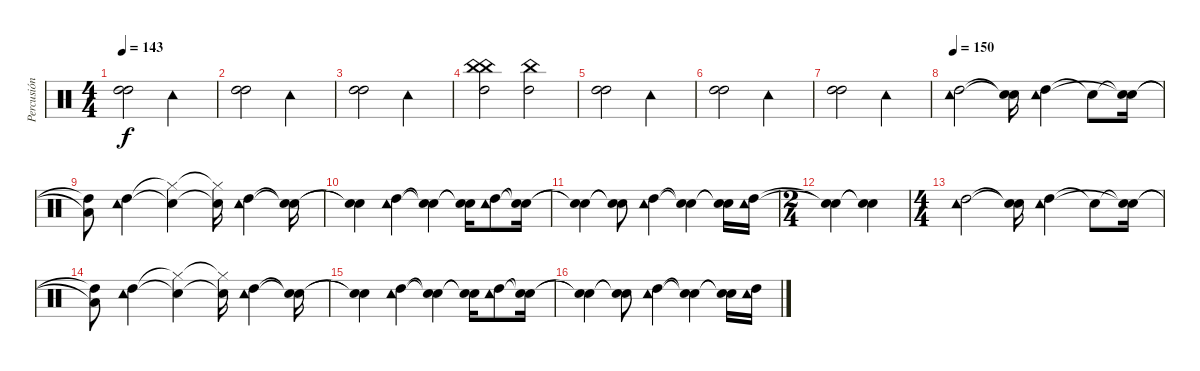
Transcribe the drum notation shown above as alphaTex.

\track ("Percusión" "Percusión") {instrument percussion}
\staff {score}
\articulation defaults
\ts (4 4)
\tempo 143
\clef neutral
\ks c
("High Tom (hit)" "High Tom (hit)").2{dy f} "Tambourine (hit)".2 |
("High Tom (hit)" "High Tom (hit)").2 "Tambourine (hit)".2 |
("High Tom (hit)" "High Tom (hit)").2 "Tambourine (hit)".2 |
("China (hit)" "High Tom (hit)" "China (hit)").2 ("China (hit)" "High Tom (hit)").2 |
("High Tom (hit)" "High Tom (hit)").2 "Tambourine (hit)".2 |
("High Tom (hit)" "High Tom (hit)").2 "Tambourine (hit)".2 |
("High Tom (hit)" "High Tom (hit)").2 "Tambourine (hit)".2 |
\tempo 150
("High Tom (hit)" "Tambourine (hit)").2 ("Snare (hit)"{t} "Snare (hit)"{t}).16 ("High Tom (hit)" "Tambourine (hit)").4 "Snare (hit)"{t}.8 ("Snare (hit)"{t} "Snare (hit)"{t}).16 |
("High Tom (hit)"{t} "Low Floor Tom (hit)"{t}).8 ("High Tom (hit)" "Tambourine (hit)").4 ("Hi-Hat (closed)"{t} "Snare (hit)"{t}).4 ("Hi-Hat (closed)"{t} "Snare (hit)"{t}).16 ("High Tom (hit)" "Tambourine (hit)").4 ("Snare (hit)"{t} "Snare (hit)"{t}).16 |
("Snare (hit)"{t} "Snare (hit)"{t}).4 ("High Tom (hit)" "Tambourine (hit)").4 ("Snare (hit)"{t} "Snare (hit)"{t}).4 ("Snare (hit)"{t} "Snare (hit)"{t}).16 ("High Tom (hit)" "Tambourine (hit)").8 ("Snare (hit)"{t} "Snare (hit)"{t}).16 |
("Snare (hit)"{t} "Snare (hit)"{t}).4 ("Snare (hit)"{t} "Snare (hit)"{t}).8 ("High Tom (hit)" "Tambourine (hit)").4 ("Snare (hit)"{t} "Snare (hit)"{t}).4 ("Snare (hit)"{t} "Snare (hit)"{t}).16 ("High Tom (hit)" "Tambourine (hit)").16 |
\ts (2 4)
("Snare (hit)"{t} "Snare (hit)"{t}).4 ("Snare (hit)"{t} "Snare (hit)"{t}).4 |
\ts (4 4)
("High Tom (hit)" "Tambourine (hit)").2 ("Snare (hit)"{t} "Snare (hit)"{t}).16 ("High Tom (hit)" "Tambourine (hit)").4 "Snare (hit)"{t}.8 ("Snare (hit)"{t} "Snare (hit)"{t}).16 |
("High Tom (hit)"{t} "Low Floor Tom (hit)"{t}).8 ("High Tom (hit)" "Tambourine (hit)").4 ("Hi-Hat (closed)"{t} "Snare (hit)"{t}).4 ("Hi-Hat (closed)"{t} "Snare (hit)"{t}).16 ("High Tom (hit)" "Tambourine (hit)").4 ("Snare (hit)"{t} "Snare (hit)"{t}).16 |
("Snare (hit)"{t} "Snare (hit)"{t}).4 ("High Tom (hit)" "Tambourine (hit)").4 ("Snare (hit)"{t} "Snare (hit)"{t}).4 ("Snare (hit)"{t} "Snare (hit)"{t}).16 ("High Tom (hit)" "Tambourine (hit)").8 ("Snare (hit)"{t} "Snare (hit)"{t}).16 |
("Snare (hit)"{t} "Snare (hit)"{t}).4 ("Snare (hit)"{t} "Snare (hit)"{t}).8 ("High Tom (hit)" "Tambourine (hit)").4 ("Snare (hit)"{t} "Snare (hit)"{t}).4 ("Snare (hit)"{t} "Snare (hit)"{t}).16 ("High Tom (hit)" "Tambourine (hit)").16
